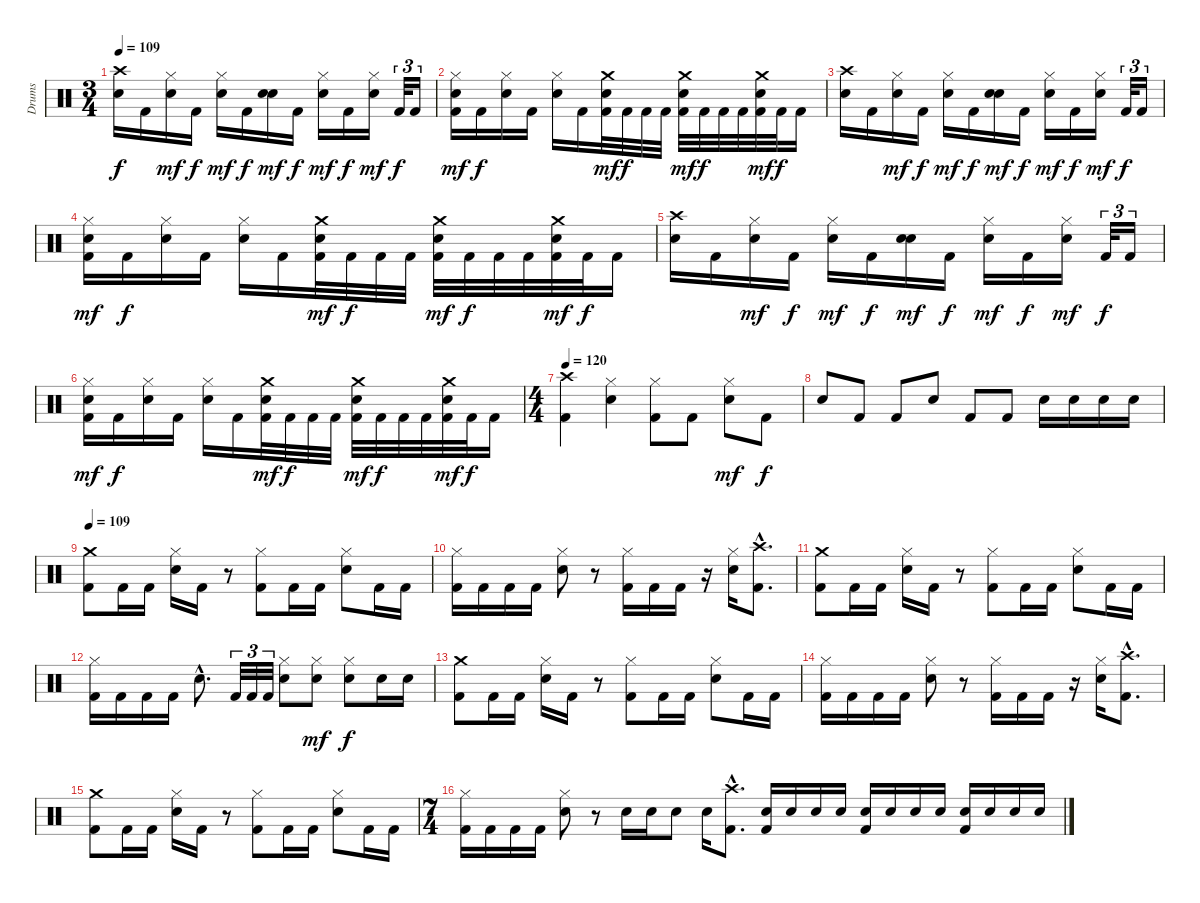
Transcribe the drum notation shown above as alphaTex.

\track ("Drums" "Drums") {instrument percussion}
\staff {score}
\articulation defaults
\ts (3 4)
\tempo 109
\clef neutral
\ks c
("Crash high (hit)" "Snare (hit) 2").16{dy f} "Kick (hit) 2".16 ("Hi-Hat (closed)" "Snare (hit) 2").16{dy mf} "Kick (hit) 2".16{dy f} ("Hi-Hat (closed)" "Snare (hit) 2").16{dy mf} "Kick (hit) 2".16{dy f} ("Electric Snare (hit)" "Snare (hit) 2").16{dy mf} "Kick (hit) 2".16{dy f} ("Hi-Hat (closed)" "Snare (hit) 2").16{dy mf} "Kick (hit) 2".16{dy f} ("Hi-Hat (closed)" "Snare (hit) 2").16{dy mf} "Kick (hit) 2".32{tu (3 2) dy f} "Kick (hit) 2".16{tu (3 2)} |
("Hi-Hat (closed)" "Snare (hit) 2" "Kick (hit) 2").16{dy mf} "Kick (hit) 2".16{dy f} ("Hi-Hat (closed)" "Snare (hit) 2").16 "Kick (hit) 2".16 ("Hi-Hat (closed)" "Snare (hit) 2").16 "Kick (hit) 2".16 ("Crash medium (hit)" "Snare (hit) 2" "Kick (hit) 2").32{dy mf} "Kick (hit) 2".32{dy f} "Kick (hit) 2".32 "Kick (hit) 2".32 ("Crash medium (hit)" "Snare (hit) 2" "Kick (hit) 2").32{dy mf} "Kick (hit) 2".32{dy f} "Kick (hit) 2".32 "Kick (hit) 2".32 ("Crash medium (hit)" "Snare (hit) 2" "Kick (hit) 2").32{dy mf} "Kick (hit) 2".32{dy f} "Kick (hit) 2".16 |
("Crash high (hit)" "Snare (hit) 2").16 "Kick (hit) 2".16 ("Hi-Hat (closed)" "Snare (hit) 2").16{dy mf} "Kick (hit) 2".16{dy f} ("Hi-Hat (closed)" "Snare (hit) 2").16{dy mf} "Kick (hit) 2".16{dy f} ("Electric Snare (hit)" "Snare (hit) 2").16{dy mf} "Kick (hit) 2".16{dy f} ("Hi-Hat (closed)" "Snare (hit) 2").16{dy mf} "Kick (hit) 2".16{dy f} ("Hi-Hat (closed)" "Snare (hit) 2").16{dy mf} "Kick (hit) 2".32{tu (3 2) dy f} "Kick (hit) 2".16{tu (3 2)} |
("Hi-Hat (closed)" "Snare (hit) 2" "Kick (hit) 2").16{dy mf} "Kick (hit) 2".16{dy f} ("Hi-Hat (closed)" "Snare (hit) 2").16 "Kick (hit) 2".16 ("Hi-Hat (closed)" "Snare (hit) 2").16 "Kick (hit) 2".16 ("Crash medium (hit)" "Snare (hit) 2" "Kick (hit) 2").32{dy mf} "Kick (hit) 2".32{dy f} "Kick (hit) 2".32 "Kick (hit) 2".32 ("Crash medium (hit)" "Snare (hit) 2" "Kick (hit) 2").32{dy mf} "Kick (hit) 2".32{dy f} "Kick (hit) 2".32 "Kick (hit) 2".32 ("Crash medium (hit)" "Snare (hit) 2" "Kick (hit) 2").32{dy mf} "Kick (hit) 2".32{dy f} "Kick (hit) 2".16 |
("Crash high (hit)" "Snare (hit) 2").16 "Kick (hit) 2".16 ("Hi-Hat (closed)" "Snare (hit) 2").16{dy mf} "Kick (hit) 2".16{dy f} ("Hi-Hat (closed)" "Snare (hit) 2").16{dy mf} "Kick (hit) 2".16{dy f} ("Electric Snare (hit)" "Snare (hit) 2").16{dy mf} "Kick (hit) 2".16{dy f} ("Hi-Hat (closed)" "Snare (hit) 2").16{dy mf} "Kick (hit) 2".16{dy f} ("Hi-Hat (closed)" "Snare (hit) 2").16{dy mf} "Kick (hit) 2".32{tu (3 2) dy f} "Kick (hit) 2".16{tu (3 2)} |
("Hi-Hat (closed)" "Snare (hit) 2" "Kick (hit) 2").16{dy mf} "Kick (hit) 2".16{dy f} ("Hi-Hat (closed)" "Snare (hit) 2").16 "Kick (hit) 2".16 ("Hi-Hat (closed)" "Snare (hit) 2").16 "Kick (hit) 2".16 ("Crash medium (hit)" "Snare (hit) 2" "Kick (hit) 2").32{dy mf} "Kick (hit) 2".32{dy f} "Kick (hit) 2".32 "Kick (hit) 2".32 ("Crash medium (hit)" "Snare (hit) 2" "Kick (hit) 2").32{dy mf} "Kick (hit) 2".32{dy f} "Kick (hit) 2".32 "Kick (hit) 2".32 ("Crash medium (hit)" "Snare (hit) 2" "Kick (hit) 2").32{dy mf} "Kick (hit) 2".32{dy f} "Kick (hit) 2".16 |
\ts (4 4)
\tempo 120
("Crash high (hit)" "Kick (hit) 2").4 ("Hi-Hat (closed)" "Snare (hit) 2").4 ("Hi-Hat (closed)" "Kick (hit) 2").8 "Kick (hit) 2".8 ("Hi-Hat (closed)" "Snare (hit) 2").8{dy mf} "Kick (hit) 2".8{dy f} |
"Snare (hit) 2".8 "Kick (hit) 2".8 "Kick (hit) 2".8 "Snare (hit) 2".8 "Kick (hit) 2".8 "Kick (hit) 2".8 "Snare (hit) 2".16 "Snare (hit) 2".16 "Snare (hit) 2".16 "Snare (hit) 2".16 |
\tempo 109
("Crash medium (hit)" "Kick (hit) 2").8 "Kick (hit) 2".16 "Kick (hit) 2".16 ("Hi-Hat (closed)" "Snare (hit) 2").16 "Kick (hit) 2".16 r.8 ("Hi-Hat (closed)" "Kick (hit) 2").8 "Kick (hit) 2".16 "Kick (hit) 2".16 ("Hi-Hat (closed)" "Snare (hit) 2").8 "Kick (hit) 2".16 "Kick (hit) 2".16 |
("Hi-Hat (closed)" "Kick (hit) 2").16 "Kick (hit) 2".16 "Kick (hit) 2".16 "Kick (hit) 2".16 ("Hi-Hat (closed)" "Snare (hit) 2").8 r.8 ("Hi-Hat (closed)" "Kick (hit) 2").16 "Kick (hit) 2".16 "Kick (hit) 2".16 r.16 ("Hi-Hat (closed)" "Snare (hit) 2").16 ("Crash high (hit)"{hac} "Kick (hit) 2"{hac}).8{d} |
("Crash medium (hit)" "Kick (hit) 2").8 "Kick (hit) 2".16 "Kick (hit) 2".16 ("Hi-Hat (closed)" "Snare (hit) 2").16 "Kick (hit) 2".16 r.8 ("Hi-Hat (closed)" "Kick (hit) 2").8 "Kick (hit) 2".16 "Kick (hit) 2".16 ("Hi-Hat (closed)" "Snare (hit) 2").8 "Kick (hit) 2".16 "Kick (hit) 2".16 |
("Hi-Hat (closed)" "Kick (hit) 2").16 "Kick (hit) 2".16 "Kick (hit) 2".16 "Kick (hit) 2".16 "Snare (hit) 2"{hac}.8{d} "Kick (hit) 2".32{tu (3 2)} "Kick (hit) 2".32{tu (3 2)} "Kick (hit) 2".32{tu (3 2)} ("Hi-Hat (closed)" "Snare (hit) 2").8 ("Hi-Hat (closed)" "Snare (hit) 2").8{dy mf} ("Hi-Hat (closed)" "Snare (hit) 2").8{dy f} "Snare (hit) 2".16 "Snare (hit) 2".16 |
("Crash medium (hit)" "Kick (hit) 2").8 "Kick (hit) 2".16 "Kick (hit) 2".16 ("Hi-Hat (closed)" "Snare (hit) 2").16 "Kick (hit) 2".16 r.8 ("Hi-Hat (closed)" "Kick (hit) 2").8 "Kick (hit) 2".16 "Kick (hit) 2".16 ("Hi-Hat (closed)" "Snare (hit) 2").8 "Kick (hit) 2".16 "Kick (hit) 2".16 |
("Hi-Hat (closed)" "Kick (hit) 2").16 "Kick (hit) 2".16 "Kick (hit) 2".16 "Kick (hit) 2".16 ("Hi-Hat (closed)" "Snare (hit) 2").8 r.8 ("Hi-Hat (closed)" "Kick (hit) 2").16 "Kick (hit) 2".16 "Kick (hit) 2".16 r.16 ("Hi-Hat (closed)" "Snare (hit) 2").16 ("Crash high (hit)"{hac} "Kick (hit) 2"{hac}).8{d} |
("Crash medium (hit)" "Kick (hit) 2").8 "Kick (hit) 2".16 "Kick (hit) 2".16 ("Hi-Hat (closed)" "Snare (hit) 2").16 "Kick (hit) 2".16 r.8 ("Hi-Hat (closed)" "Kick (hit) 2").8 "Kick (hit) 2".16 "Kick (hit) 2".16 ("Hi-Hat (closed)" "Snare (hit) 2").8 "Kick (hit) 2".16 "Kick (hit) 2".16 |
\ts (7 4)
("Hi-Hat (closed)" "Kick (hit) 2").16 "Kick (hit) 2".16 "Kick (hit) 2".16 "Kick (hit) 2".16 ("Hi-Hat (closed)" "Snare (hit) 2").8 r.8 "Snare (hit) 2".16 "Snare (hit) 2".16 "Snare (hit) 2".8 "Snare (hit) 2".16 ("Crash high (hit)"{hac} "Kick (hit) 2"{hac}).8{d} ("Snare (hit) 2" "Kick (hit) 2").16 "Snare (hit) 2".16 "Snare (hit) 2".16 "Snare (hit) 2".16 ("Snare (hit) 2" "Kick (hit) 2").16 "Snare (hit) 2".16 "Snare (hit) 2".16 "Snare (hit) 2".16 ("Snare (hit) 2" "Kick (hit) 2").16 "Snare (hit) 2".16 "Snare (hit) 2".16 "Snare (hit) 2".16
